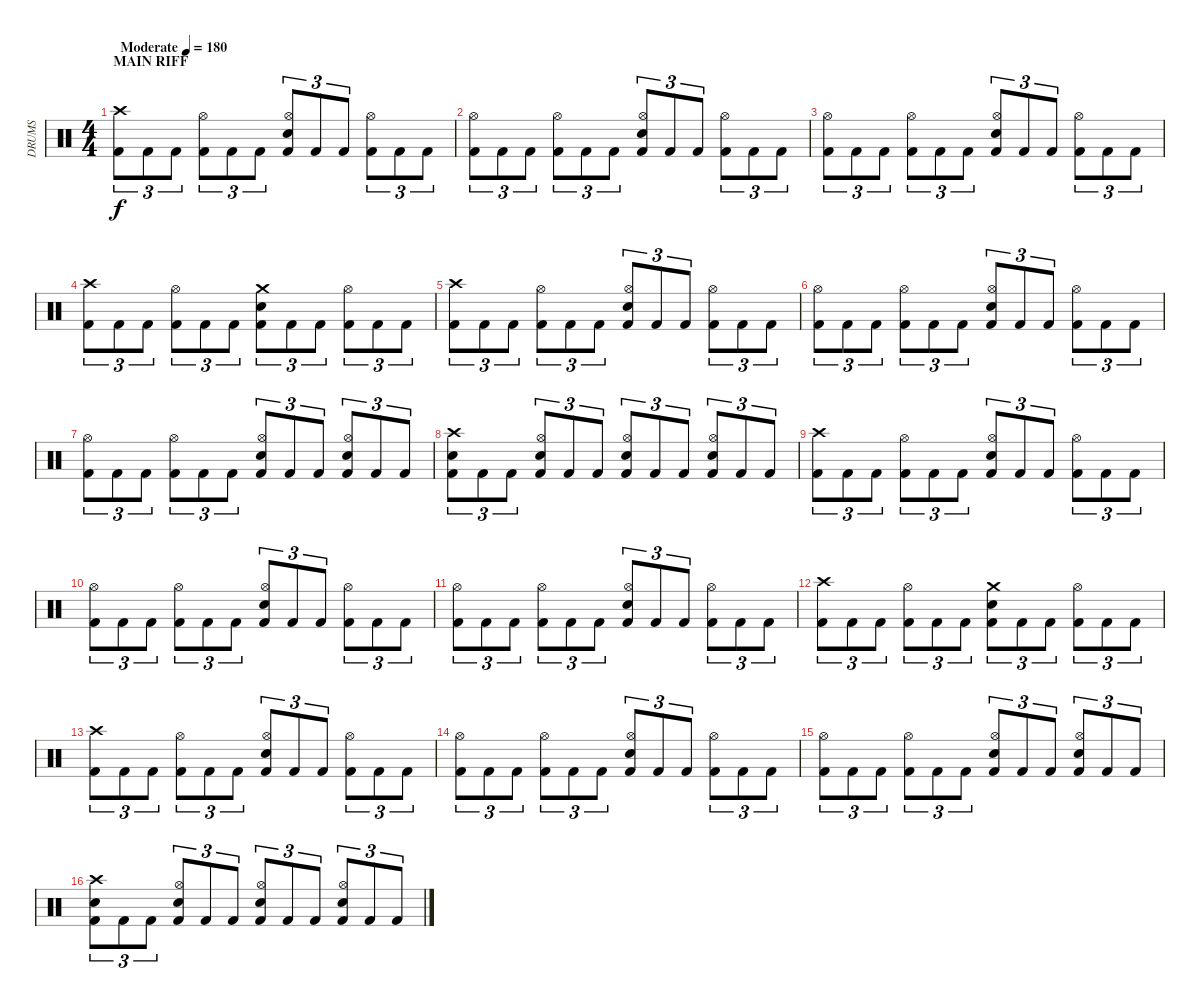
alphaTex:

\track ("DRUMS" "DRUMS") {instrument percussion}
\staff {score}
\articulation defaults
\ts (4 4)
\section ("" "MAIN RIFF")
\tempo (180 "Moderate")
\clef neutral
\ks c
("Crash high (hit)" "Kick (hit) 2").8{tu (3 2) dy f} "Kick (hit) 2".8{tu (3 2)} "Kick (hit) 2".8{tu (3 2)} ("Hi-Hat (open)" "Kick (hit) 2").8{tu (3 2)} "Kick (hit) 2".8{tu (3 2)} "Kick (hit) 2".8{tu (3 2)} ("Hi-Hat (open)" "Electric Snare (hit)" "Kick (hit) 2").8{tu (3 2)} "Kick (hit) 2".8{tu (3 2)} "Kick (hit) 2".8{tu (3 2)} ("Hi-Hat (open)" "Kick (hit) 2").8{tu (3 2)} "Kick (hit) 2".8{tu (3 2)} "Kick (hit) 2".8{tu (3 2)} |
("Hi-Hat (open)" "Kick (hit) 2").8{tu (3 2)} "Kick (hit) 2".8{tu (3 2)} "Kick (hit) 2".8{tu (3 2)} ("Hi-Hat (open)" "Kick (hit) 2").8{tu (3 2)} "Kick (hit) 2".8{tu (3 2)} "Kick (hit) 2".8{tu (3 2)} ("Hi-Hat (open)" "Electric Snare (hit)" "Kick (hit) 2").8{tu (3 2)} "Kick (hit) 2".8{tu (3 2)} "Kick (hit) 2".8{tu (3 2)} ("Hi-Hat (open)" "Kick (hit) 2").8{tu (3 2)} "Kick (hit) 2".8{tu (3 2)} "Kick (hit) 2".8{tu (3 2)} |
("Hi-Hat (open)" "Kick (hit) 2").8{tu (3 2)} "Kick (hit) 2".8{tu (3 2)} "Kick (hit) 2".8{tu (3 2)} ("Hi-Hat (open)" "Kick (hit) 2").8{tu (3 2)} "Kick (hit) 2".8{tu (3 2)} "Kick (hit) 2".8{tu (3 2)} ("Hi-Hat (open)" "Electric Snare (hit)" "Kick (hit) 2").8{tu (3 2)} "Kick (hit) 2".8{tu (3 2)} "Kick (hit) 2".8{tu (3 2)} ("Hi-Hat (open)" "Kick (hit) 2").8{tu (3 2)} "Kick (hit) 2".8{tu (3 2)} "Kick (hit) 2".8{tu (3 2)} |
("Crash high (hit)" "Kick (hit) 2").8{tu (3 2)} "Kick (hit) 2".8{tu (3 2)} "Kick (hit) 2".8{tu (3 2)} ("Hi-Hat (open)" "Kick (hit) 2").8{tu (3 2)} "Kick (hit) 2".8{tu (3 2)} "Kick (hit) 2".8{tu (3 2)} ("Crash medium (hit)" "Electric Snare (hit)" "Kick (hit) 2").8{tu (3 2)} "Kick (hit) 2".8{tu (3 2)} "Kick (hit) 2".8{tu (3 2)} ("Hi-Hat (open)" "Kick (hit) 2").8{tu (3 2)} "Kick (hit) 2".8{tu (3 2)} "Kick (hit) 2".8{tu (3 2)} |
("Crash high (hit)" "Kick (hit) 2").8{tu (3 2)} "Kick (hit) 2".8{tu (3 2)} "Kick (hit) 2".8{tu (3 2)} ("Hi-Hat (open)" "Kick (hit) 2").8{tu (3 2)} "Kick (hit) 2".8{tu (3 2)} "Kick (hit) 2".8{tu (3 2)} ("Hi-Hat (open)" "Electric Snare (hit)" "Kick (hit) 2").8{tu (3 2)} "Kick (hit) 2".8{tu (3 2)} "Kick (hit) 2".8{tu (3 2)} ("Hi-Hat (open)" "Kick (hit) 2").8{tu (3 2)} "Kick (hit) 2".8{tu (3 2)} "Kick (hit) 2".8{tu (3 2)} |
("Hi-Hat (open)" "Kick (hit) 2").8{tu (3 2)} "Kick (hit) 2".8{tu (3 2)} "Kick (hit) 2".8{tu (3 2)} ("Hi-Hat (open)" "Kick (hit) 2").8{tu (3 2)} "Kick (hit) 2".8{tu (3 2)} "Kick (hit) 2".8{tu (3 2)} ("Hi-Hat (open)" "Electric Snare (hit)" "Kick (hit) 2").8{tu (3 2)} "Kick (hit) 2".8{tu (3 2)} "Kick (hit) 2".8{tu (3 2)} ("Hi-Hat (open)" "Kick (hit) 2").8{tu (3 2)} "Kick (hit) 2".8{tu (3 2)} "Kick (hit) 2".8{tu (3 2)} |
("Hi-Hat (open)" "Kick (hit) 2").8{tu (3 2)} "Kick (hit) 2".8{tu (3 2)} "Kick (hit) 2".8{tu (3 2)} ("Hi-Hat (open)" "Kick (hit) 2").8{tu (3 2)} "Kick (hit) 2".8{tu (3 2)} "Kick (hit) 2".8{tu (3 2)} ("Hi-Hat (open)" "Electric Snare (hit)" "Kick (hit) 2").8{tu (3 2)} "Kick (hit) 2".8{tu (3 2)} "Kick (hit) 2".8{tu (3 2)} ("Hi-Hat (open)" "Electric Snare (hit)" "Kick (hit) 2").8{tu (3 2)} "Kick (hit) 2".8{tu (3 2)} "Kick (hit) 2".8{tu (3 2)} |
("Crash high (hit)" "Electric Snare (hit)" "Kick (hit) 2").8{tu (3 2)} "Kick (hit) 2".8{tu (3 2)} "Kick (hit) 2".8{tu (3 2)} ("Hi-Hat (open)" "Electric Snare (hit)" "Kick (hit) 2").8{tu (3 2)} "Kick (hit) 2".8{tu (3 2)} "Kick (hit) 2".8{tu (3 2)} ("Hi-Hat (open)" "Electric Snare (hit)" "Kick (hit) 2").8{tu (3 2)} "Kick (hit) 2".8{tu (3 2)} "Kick (hit) 2".8{tu (3 2)} ("Hi-Hat (open)" "Electric Snare (hit)" "Kick (hit) 2").8{tu (3 2)} "Kick (hit) 2".8{tu (3 2)} "Kick (hit) 2".8{tu (3 2)} |
("Crash high (hit)" "Kick (hit) 2").8{tu (3 2)} "Kick (hit) 2".8{tu (3 2)} "Kick (hit) 2".8{tu (3 2)} ("Hi-Hat (open)" "Kick (hit) 2").8{tu (3 2)} "Kick (hit) 2".8{tu (3 2)} "Kick (hit) 2".8{tu (3 2)} ("Hi-Hat (open)" "Electric Snare (hit)" "Kick (hit) 2").8{tu (3 2)} "Kick (hit) 2".8{tu (3 2)} "Kick (hit) 2".8{tu (3 2)} ("Hi-Hat (open)" "Kick (hit) 2").8{tu (3 2)} "Kick (hit) 2".8{tu (3 2)} "Kick (hit) 2".8{tu (3 2)} |
("Hi-Hat (open)" "Kick (hit) 2").8{tu (3 2)} "Kick (hit) 2".8{tu (3 2)} "Kick (hit) 2".8{tu (3 2)} ("Hi-Hat (open)" "Kick (hit) 2").8{tu (3 2)} "Kick (hit) 2".8{tu (3 2)} "Kick (hit) 2".8{tu (3 2)} ("Hi-Hat (open)" "Electric Snare (hit)" "Kick (hit) 2").8{tu (3 2)} "Kick (hit) 2".8{tu (3 2)} "Kick (hit) 2".8{tu (3 2)} ("Hi-Hat (open)" "Kick (hit) 2").8{tu (3 2)} "Kick (hit) 2".8{tu (3 2)} "Kick (hit) 2".8{tu (3 2)} |
("Hi-Hat (open)" "Kick (hit) 2").8{tu (3 2)} "Kick (hit) 2".8{tu (3 2)} "Kick (hit) 2".8{tu (3 2)} ("Hi-Hat (open)" "Kick (hit) 2").8{tu (3 2)} "Kick (hit) 2".8{tu (3 2)} "Kick (hit) 2".8{tu (3 2)} ("Hi-Hat (open)" "Electric Snare (hit)" "Kick (hit) 2").8{tu (3 2)} "Kick (hit) 2".8{tu (3 2)} "Kick (hit) 2".8{tu (3 2)} ("Hi-Hat (open)" "Kick (hit) 2").8{tu (3 2)} "Kick (hit) 2".8{tu (3 2)} "Kick (hit) 2".8{tu (3 2)} |
("Crash high (hit)" "Kick (hit) 2").8{tu (3 2)} "Kick (hit) 2".8{tu (3 2)} "Kick (hit) 2".8{tu (3 2)} ("Hi-Hat (open)" "Kick (hit) 2").8{tu (3 2)} "Kick (hit) 2".8{tu (3 2)} "Kick (hit) 2".8{tu (3 2)} ("Crash medium (hit)" "Electric Snare (hit)" "Kick (hit) 2").8{tu (3 2)} "Kick (hit) 2".8{tu (3 2)} "Kick (hit) 2".8{tu (3 2)} ("Hi-Hat (open)" "Kick (hit) 2").8{tu (3 2)} "Kick (hit) 2".8{tu (3 2)} "Kick (hit) 2".8{tu (3 2)} |
("Crash high (hit)" "Kick (hit) 2").8{tu (3 2)} "Kick (hit) 2".8{tu (3 2)} "Kick (hit) 2".8{tu (3 2)} ("Hi-Hat (open)" "Kick (hit) 2").8{tu (3 2)} "Kick (hit) 2".8{tu (3 2)} "Kick (hit) 2".8{tu (3 2)} ("Hi-Hat (open)" "Electric Snare (hit)" "Kick (hit) 2").8{tu (3 2)} "Kick (hit) 2".8{tu (3 2)} "Kick (hit) 2".8{tu (3 2)} ("Hi-Hat (open)" "Kick (hit) 2").8{tu (3 2)} "Kick (hit) 2".8{tu (3 2)} "Kick (hit) 2".8{tu (3 2)} |
("Hi-Hat (open)" "Kick (hit) 2").8{tu (3 2)} "Kick (hit) 2".8{tu (3 2)} "Kick (hit) 2".8{tu (3 2)} ("Hi-Hat (open)" "Kick (hit) 2").8{tu (3 2)} "Kick (hit) 2".8{tu (3 2)} "Kick (hit) 2".8{tu (3 2)} ("Hi-Hat (open)" "Electric Snare (hit)" "Kick (hit) 2").8{tu (3 2)} "Kick (hit) 2".8{tu (3 2)} "Kick (hit) 2".8{tu (3 2)} ("Hi-Hat (open)" "Kick (hit) 2").8{tu (3 2)} "Kick (hit) 2".8{tu (3 2)} "Kick (hit) 2".8{tu (3 2)} |
("Hi-Hat (open)" "Kick (hit) 2").8{tu (3 2)} "Kick (hit) 2".8{tu (3 2)} "Kick (hit) 2".8{tu (3 2)} ("Hi-Hat (open)" "Kick (hit) 2").8{tu (3 2)} "Kick (hit) 2".8{tu (3 2)} "Kick (hit) 2".8{tu (3 2)} ("Hi-Hat (open)" "Electric Snare (hit)" "Kick (hit) 2").8{tu (3 2)} "Kick (hit) 2".8{tu (3 2)} "Kick (hit) 2".8{tu (3 2)} ("Hi-Hat (open)" "Electric Snare (hit)" "Kick (hit) 2").8{tu (3 2)} "Kick (hit) 2".8{tu (3 2)} "Kick (hit) 2".8{tu (3 2)} |
("Crash high (hit)" "Electric Snare (hit)" "Kick (hit) 2").8{tu (3 2)} "Kick (hit) 2".8{tu (3 2)} "Kick (hit) 2".8{tu (3 2)} ("Hi-Hat (open)" "Electric Snare (hit)" "Kick (hit) 2").8{tu (3 2)} "Kick (hit) 2".8{tu (3 2)} "Kick (hit) 2".8{tu (3 2)} ("Hi-Hat (open)" "Electric Snare (hit)" "Kick (hit) 2").8{tu (3 2)} "Kick (hit) 2".8{tu (3 2)} "Kick (hit) 2".8{tu (3 2)} ("Hi-Hat (open)" "Electric Snare (hit)" "Kick (hit) 2").8{tu (3 2)} "Kick (hit) 2".8{tu (3 2)} "Kick (hit) 2".8{tu (3 2)}
